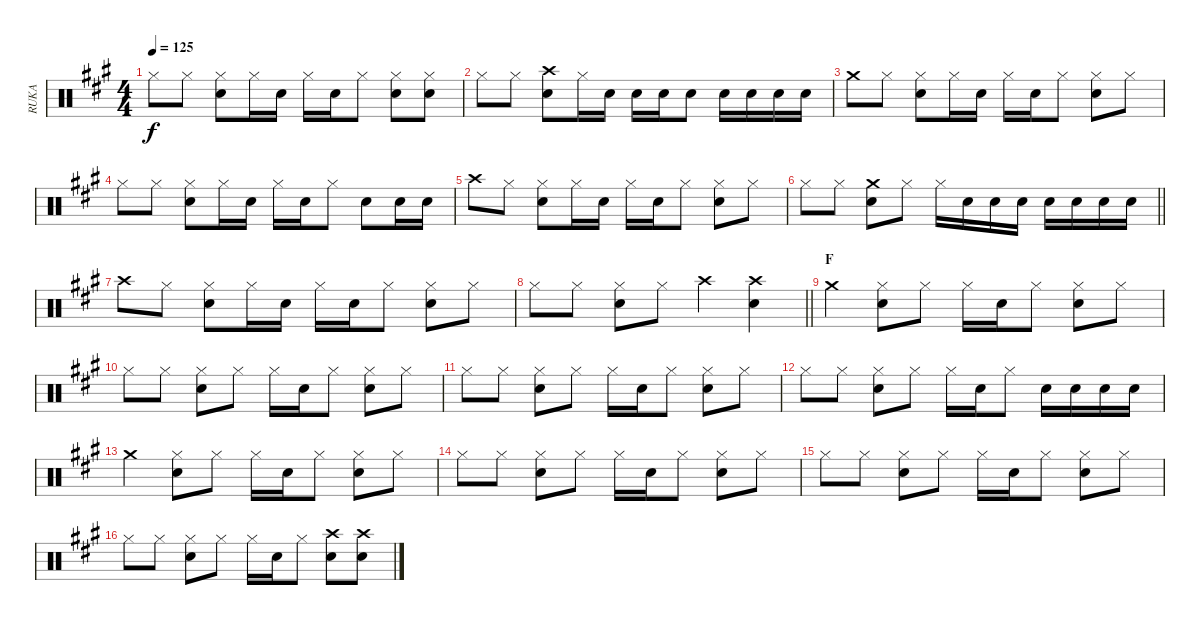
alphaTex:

\track ("RUKA" "RUKA") {instrument percussion}
\staff {score}
\articulation defaults
\ts (4 4)
\tempo 125
\clef neutral
\ks a "Hi-Hat (closed)".8{dy f} "Hi-Hat (closed)".8
("Hi-Hat (closed)" "Snare (hit) 2").8 "Hi-Hat (closed)".16 "Snare (hit) 2".16 "Hi-Hat (closed)".16 "Snare (hit) 2".16 "Hi-Hat (closed)".8 ("Hi-Hat (closed)" "Snare (hit) 2").8 ("Hi-Hat (closed)" "Snare (hit) 2").8 |
"Hi-Hat (closed)".8 "Hi-Hat (closed)".8 ("Crash high (hit)" "Snare (hit) 2").8 "Hi-Hat (closed)".16 "Snare (hit) 2".16 "Snare (hit) 2".16 "Snare (hit) 2".16 "Snare (hit) 2".8 "Snare (hit) 2".16 "Snare (hit) 2".16 "Snare (hit) 2".16 "Snare (hit) 2".16 |
"Crash medium (hit)".8 "Hi-Hat (closed)".8 ("Hi-Hat (closed)" "Snare (hit) 2").8 "Hi-Hat (closed)".16 "Snare (hit) 2".16 "Hi-Hat (closed)".16 "Snare (hit) 2".16 "Hi-Hat (closed)".8 ("Hi-Hat (closed)" "Snare (hit) 2").8 "Hi-Hat (closed)".8 |
"Hi-Hat (closed)".8 "Hi-Hat (closed)".8 ("Hi-Hat (closed)" "Snare (hit) 2").8 "Hi-Hat (closed)".16 "Snare (hit) 2".16 "Hi-Hat (closed)".16 "Snare (hit) 2".16 "Hi-Hat (closed)".8 "Snare (hit) 2".8 "Snare (hit) 2".16 "Snare (hit) 2".16 |
"Crash high (hit)".8 "Hi-Hat (closed)".8 ("Hi-Hat (closed)" "Snare (hit) 2").8 "Hi-Hat (closed)".16 "Snare (hit) 2".16 "Hi-Hat (closed)".16 "Snare (hit) 2".16 "Hi-Hat (closed)".8 ("Hi-Hat (closed)" "Snare (hit) 2").8 "Hi-Hat (closed)".8 |
\barLineRight lightlight "Hi-Hat (closed)".8 "Hi-Hat (closed)".8
("Crash medium (hit)" "Snare (hit) 2").8 "Hi-Hat (closed)".8 "Hi-Hat (closed)".16 "Snare (hit) 2".16 "Snare (hit) 2".16 "Snare (hit) 2".16 "Snare (hit) 2".16 "Snare (hit) 2".16 "Snare (hit) 2".16 "Snare (hit) 2".16 |
"Crash high (hit)".8 "Hi-Hat (closed)".8 ("Hi-Hat (closed)" "Snare (hit) 2").8 "Hi-Hat (closed)".16 "Snare (hit) 2".16 "Hi-Hat (closed)".16 "Snare (hit) 2".16 "Hi-Hat (closed)".8 ("Hi-Hat (closed)" "Snare (hit) 2").8 "Hi-Hat (closed)".8 |
\barLineRight lightlight "Hi-Hat (closed)".8 "Hi-Hat (closed)".8
("Hi-Hat (closed)" "Snare (hit) 2").8 "Hi-Hat (closed)".8 "Crash high (hit)".4 ("Crash high (hit)" "Snare (hit) 2").4 |
\section ("" "F")
"Crash medium (hit)".4 ("Hi-Hat (closed)" "Snare (hit) 2").8 "Hi-Hat (closed)".8 "Hi-Hat (closed)".16 "Snare (hit) 2".16 "Hi-Hat (closed)".8 ("Hi-Hat (closed)" "Snare (hit) 2").8 "Hi-Hat (closed)".8 |
"Hi-Hat (closed)".8 "Hi-Hat (closed)".8 ("Hi-Hat (closed)" "Snare (hit) 2").8 "Hi-Hat (closed)".8 "Hi-Hat (closed)".16 "Snare (hit) 2".16 "Hi-Hat (closed)".8 ("Hi-Hat (closed)" "Snare (hit) 2").8 "Hi-Hat (closed)".8 |
"Hi-Hat (closed)".8 "Hi-Hat (closed)".8 ("Hi-Hat (closed)" "Snare (hit) 2").8 "Hi-Hat (closed)".8 "Hi-Hat (closed)".16 "Snare (hit) 2".16 "Hi-Hat (closed)".8 ("Hi-Hat (closed)" "Snare (hit) 2").8 "Hi-Hat (closed)".8 |
"Hi-Hat (closed)".8 "Hi-Hat (closed)".8 ("Hi-Hat (closed)" "Snare (hit) 2").8 "Hi-Hat (closed)".8 "Hi-Hat (closed)".16 "Snare (hit) 2".16 "Hi-Hat (closed)".8 "Snare (hit) 2".16 "Snare (hit) 2".16 "Snare (hit) 2".16 "Snare (hit) 2".16 |
"Crash medium (hit)".4 ("Hi-Hat (closed)" "Snare (hit) 2").8 "Hi-Hat (closed)".8 "Hi-Hat (closed)".16 "Snare (hit) 2".16 "Hi-Hat (closed)".8 ("Hi-Hat (closed)" "Snare (hit) 2").8 "Hi-Hat (closed)".8 |
"Hi-Hat (closed)".8 "Hi-Hat (closed)".8 ("Hi-Hat (closed)" "Snare (hit) 2").8 "Hi-Hat (closed)".8 "Hi-Hat (closed)".16 "Snare (hit) 2".16 "Hi-Hat (closed)".8 ("Hi-Hat (closed)" "Snare (hit) 2").8 "Hi-Hat (closed)".8 |
"Hi-Hat (closed)".8 "Hi-Hat (closed)".8 ("Hi-Hat (closed)" "Snare (hit) 2").8 "Hi-Hat (closed)".8 "Hi-Hat (closed)".16 "Snare (hit) 2".16 "Hi-Hat (closed)".8 ("Hi-Hat (closed)" "Snare (hit) 2").8 "Hi-Hat (closed)".8 |
"Hi-Hat (closed)".8 "Hi-Hat (closed)".8 ("Hi-Hat (closed)" "Snare (hit) 2").8 "Hi-Hat (closed)".8 "Hi-Hat (closed)".16 "Snare (hit) 2".16 "Hi-Hat (closed)".8 ("Crash high (hit)" "Snare (hit) 2").8 ("Crash high (hit)" "Snare (hit) 2").8
